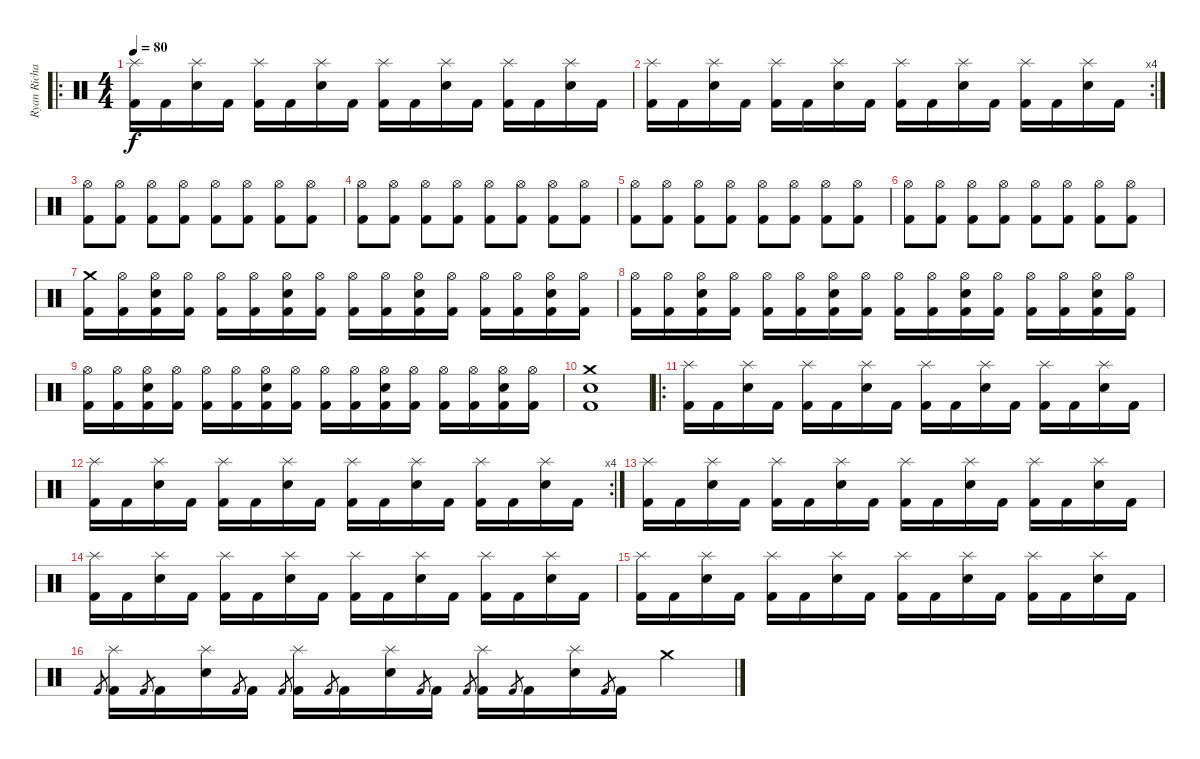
\track ("Ryan Richards" "Ryan Richa") {instrument percussion}
\staff {score}
\articulation defaults
\ro
\ts (4 4)
\tempo 80
\clef neutral
\ks c
("Splash (hit)" "Kick (hit) 2").16{dy f} "Kick (hit) 2".16 ("Splash (hit)" "Snare (hit) 2").16 "Kick (hit) 2".16 ("Splash (hit)" "Kick (hit) 2").16 "Kick (hit) 2".16 ("Splash (hit)" "Snare (hit) 2").16 "Kick (hit) 2".16 ("Splash (hit)" "Kick (hit) 2").16 "Kick (hit) 2".16 ("Splash (hit)" "Snare (hit) 2").16 "Kick (hit) 2".16 ("Splash (hit)" "Kick (hit) 2").16 "Kick (hit) 2".16 ("Splash (hit)" "Snare (hit) 2").16 "Kick (hit) 2".16 |
\rc 4
("Splash (hit)" "Kick (hit) 2").16 "Kick (hit) 2".16 ("Splash (hit)" "Snare (hit) 2").16 "Kick (hit) 2".16 ("Splash (hit)" "Kick (hit) 2").16 "Kick (hit) 2".16 ("Splash (hit)" "Snare (hit) 2").16 "Kick (hit) 2".16 ("Splash (hit)" "Kick (hit) 2").16 "Kick (hit) 2".16 ("Splash (hit)" "Snare (hit) 2").16 "Kick (hit) 2".16 ("Splash (hit)" "Kick (hit) 2").16 "Kick (hit) 2".16 ("Splash (hit)" "Snare (hit) 2").16 "Kick (hit) 2".16 |
("Hi-Hat (open)" "Kick (hit) 2").8 ("Hi-Hat (open)" "Kick (hit) 2").8 ("Hi-Hat (open)" "Kick (hit) 2").8 ("Hi-Hat (open)" "Kick (hit) 2").8 ("Hi-Hat (open)" "Kick (hit) 2").8 ("Hi-Hat (open)" "Kick (hit) 2").8 ("Hi-Hat (open)" "Kick (hit) 2").8 ("Hi-Hat (open)" "Kick (hit) 2").8 |
("Hi-Hat (open)" "Kick (hit) 2").8 ("Hi-Hat (open)" "Kick (hit) 2").8 ("Hi-Hat (open)" "Kick (hit) 2").8 ("Hi-Hat (open)" "Kick (hit) 2").8 ("Hi-Hat (open)" "Kick (hit) 2").8 ("Hi-Hat (open)" "Kick (hit) 2").8 ("Hi-Hat (open)" "Kick (hit) 2").8 ("Hi-Hat (open)" "Kick (hit) 2").8 |
("Hi-Hat (open)" "Kick (hit) 2").8 ("Hi-Hat (open)" "Kick (hit) 2").8 ("Hi-Hat (open)" "Kick (hit) 2").8 ("Hi-Hat (open)" "Kick (hit) 2").8 ("Hi-Hat (open)" "Kick (hit) 2").8 ("Hi-Hat (open)" "Kick (hit) 2").8 ("Hi-Hat (open)" "Kick (hit) 2").8 ("Hi-Hat (open)" "Kick (hit) 2").8 |
("Hi-Hat (open)" "Kick (hit) 2").8 ("Hi-Hat (open)" "Kick (hit) 2").8 ("Hi-Hat (open)" "Kick (hit) 2").8 ("Hi-Hat (open)" "Kick (hit) 2").8 ("Hi-Hat (open)" "Kick (hit) 2").8 ("Hi-Hat (open)" "Kick (hit) 2").8 ("Hi-Hat (open)" "Kick (hit) 2").8 ("Hi-Hat (open)" "Kick (hit) 2").8 |
("Crash medium (hit)" "Kick (hit) 2").16 ("Hi-Hat (open)" "Kick (hit) 2").16 ("Hi-Hat (open)" "Snare (hit) 2" "Kick (hit) 2").16 ("Hi-Hat (open)" "Kick (hit) 2").16 ("Hi-Hat (open)" "Kick (hit) 2").16 ("Hi-Hat (open)" "Kick (hit) 2").16 ("Hi-Hat (open)" "Snare (hit) 2" "Kick (hit) 2").16 ("Hi-Hat (open)" "Kick (hit) 2").16 ("Hi-Hat (open)" "Kick (hit) 2").16 ("Hi-Hat (open)" "Kick (hit) 2").16 ("Hi-Hat (open)" "Snare (hit) 2" "Kick (hit) 2").16 ("Hi-Hat (open)" "Kick (hit) 2").16 ("Hi-Hat (open)" "Kick (hit) 2").16 ("Hi-Hat (open)" "Kick (hit) 2").16 ("Hi-Hat (open)" "Snare (hit) 2" "Kick (hit) 2").16 ("Hi-Hat (open)" "Kick (hit) 2").16 |
("Hi-Hat (open)" "Kick (hit) 2").16 ("Hi-Hat (open)" "Kick (hit) 2").16 ("Hi-Hat (open)" "Snare (hit) 2" "Kick (hit) 2").16 ("Hi-Hat (open)" "Kick (hit) 2").16 ("Hi-Hat (open)" "Kick (hit) 2").16 ("Hi-Hat (open)" "Kick (hit) 2").16 ("Hi-Hat (open)" "Snare (hit) 2" "Kick (hit) 2").16 ("Hi-Hat (open)" "Kick (hit) 2").16 ("Hi-Hat (open)" "Kick (hit) 2").16 ("Hi-Hat (open)" "Kick (hit) 2").16 ("Hi-Hat (open)" "Snare (hit) 2" "Kick (hit) 2").16 ("Hi-Hat (open)" "Kick (hit) 2").16 ("Hi-Hat (open)" "Kick (hit) 2").16 ("Hi-Hat (open)" "Kick (hit) 2").16 ("Hi-Hat (open)" "Snare (hit) 2" "Kick (hit) 2").16 ("Hi-Hat (open)" "Kick (hit) 2").16 |
("Hi-Hat (open)" "Kick (hit) 2").16 ("Hi-Hat (open)" "Kick (hit) 2").16 ("Hi-Hat (open)" "Snare (hit) 2" "Kick (hit) 2").16 ("Hi-Hat (open)" "Kick (hit) 2").16 ("Hi-Hat (open)" "Kick (hit) 2").16 ("Hi-Hat (open)" "Kick (hit) 2").16 ("Hi-Hat (open)" "Snare (hit) 2" "Kick (hit) 2").16 ("Hi-Hat (open)" "Kick (hit) 2").16 ("Hi-Hat (open)" "Kick (hit) 2").16 ("Hi-Hat (open)" "Kick (hit) 2").16 ("Hi-Hat (open)" "Snare (hit) 2" "Kick (hit) 2").16 ("Hi-Hat (open)" "Kick (hit) 2").16 ("Hi-Hat (open)" "Kick (hit) 2").16 ("Hi-Hat (open)" "Kick (hit) 2").16 ("Hi-Hat (open)" "Snare (hit) 2" "Kick (hit) 2").16 ("Hi-Hat (open)" "Kick (hit) 2").16 |
("Crash medium (hit)" "Snare (hit) 2" "Kick (hit) 2").1 |
\ro
("Splash (hit)" "Kick (hit) 2").16 "Kick (hit) 2".16 ("Splash (hit)" "Snare (hit) 2").16 "Kick (hit) 2".16 ("Splash (hit)" "Kick (hit) 2").16 "Kick (hit) 2".16 ("Splash (hit)" "Snare (hit) 2").16 "Kick (hit) 2".16 ("Splash (hit)" "Kick (hit) 2").16 "Kick (hit) 2".16 ("Splash (hit)" "Snare (hit) 2").16 "Kick (hit) 2".16 ("Splash (hit)" "Kick (hit) 2").16 "Kick (hit) 2".16 ("Splash (hit)" "Snare (hit) 2").16 "Kick (hit) 2".16 |
\rc 4
("Splash (hit)" "Kick (hit) 2").16 "Kick (hit) 2".16 ("Splash (hit)" "Snare (hit) 2").16 "Kick (hit) 2".16 ("Splash (hit)" "Kick (hit) 2").16 "Kick (hit) 2".16 ("Splash (hit)" "Snare (hit) 2").16 "Kick (hit) 2".16 ("Splash (hit)" "Kick (hit) 2").16 "Kick (hit) 2".16 ("Splash (hit)" "Snare (hit) 2").16 "Kick (hit) 2".16 ("Splash (hit)" "Kick (hit) 2").16 "Kick (hit) 2".16 ("Splash (hit)" "Snare (hit) 2").16 "Kick (hit) 2".16 |
("Splash (hit)" "Kick (hit) 2").16 "Kick (hit) 2".16 ("Splash (hit)" "Snare (hit) 2").16 "Kick (hit) 2".16 ("Splash (hit)" "Kick (hit) 2").16 "Kick (hit) 2".16 ("Splash (hit)" "Snare (hit) 2").16 "Kick (hit) 2".16 ("Splash (hit)" "Kick (hit) 2").16 "Kick (hit) 2".16 ("Splash (hit)" "Snare (hit) 2").16 "Kick (hit) 2".16 ("Splash (hit)" "Kick (hit) 2").16 "Kick (hit) 2".16 ("Splash (hit)" "Snare (hit) 2").16 "Kick (hit) 2".16 |
("Splash (hit)" "Kick (hit) 2").16 "Kick (hit) 2".16 ("Splash (hit)" "Snare (hit) 2").16 "Kick (hit) 2".16 ("Splash (hit)" "Kick (hit) 2").16 "Kick (hit) 2".16 ("Splash (hit)" "Snare (hit) 2").16 "Kick (hit) 2".16 ("Splash (hit)" "Kick (hit) 2").16 "Kick (hit) 2".16 ("Splash (hit)" "Snare (hit) 2").16 "Kick (hit) 2".16 ("Splash (hit)" "Kick (hit) 2").16 "Kick (hit) 2".16 ("Splash (hit)" "Snare (hit) 2").16 "Kick (hit) 2".16 |
("Splash (hit)" "Kick (hit) 2").16 "Kick (hit) 2".16 ("Splash (hit)" "Snare (hit) 2").16 "Kick (hit) 2".16 ("Splash (hit)" "Kick (hit) 2").16 "Kick (hit) 2".16 ("Splash (hit)" "Snare (hit) 2").16 "Kick (hit) 2".16 ("Splash (hit)" "Kick (hit) 2").16 "Kick (hit) 2".16 ("Splash (hit)" "Snare (hit) 2").16 "Kick (hit) 2".16 ("Splash (hit)" "Kick (hit) 2").16 "Kick (hit) 2".16 ("Splash (hit)" "Snare (hit) 2").16 "Kick (hit) 2".16 |
"Kick (hit) 2".8{gr} ("Splash (hit)" "Kick (hit) 2").16 "Kick (hit) 2".8{gr} "Kick (hit) 2".16 ("Splash (hit)" "Snare (hit) 2").16 "Kick (hit) 2".8{gr} "Kick (hit) 2".16 "Kick (hit) 2".8{gr} ("Splash (hit)" "Kick (hit) 2").16 "Kick (hit) 2".8{gr} "Kick (hit) 2".16 ("Splash (hit)" "Snare (hit) 2").16 "Kick (hit) 2".8{gr} "Kick (hit) 2".16 "Kick (hit) 2".8{gr} ("Splash (hit)" "Kick (hit) 2").16 "Kick (hit) 2".8{gr} "Kick (hit) 2".16 ("Splash (hit)" "Snare (hit) 2").16 "Kick (hit) 2".8{gr} "Kick (hit) 2".16 "Crash medium (hit)".4
